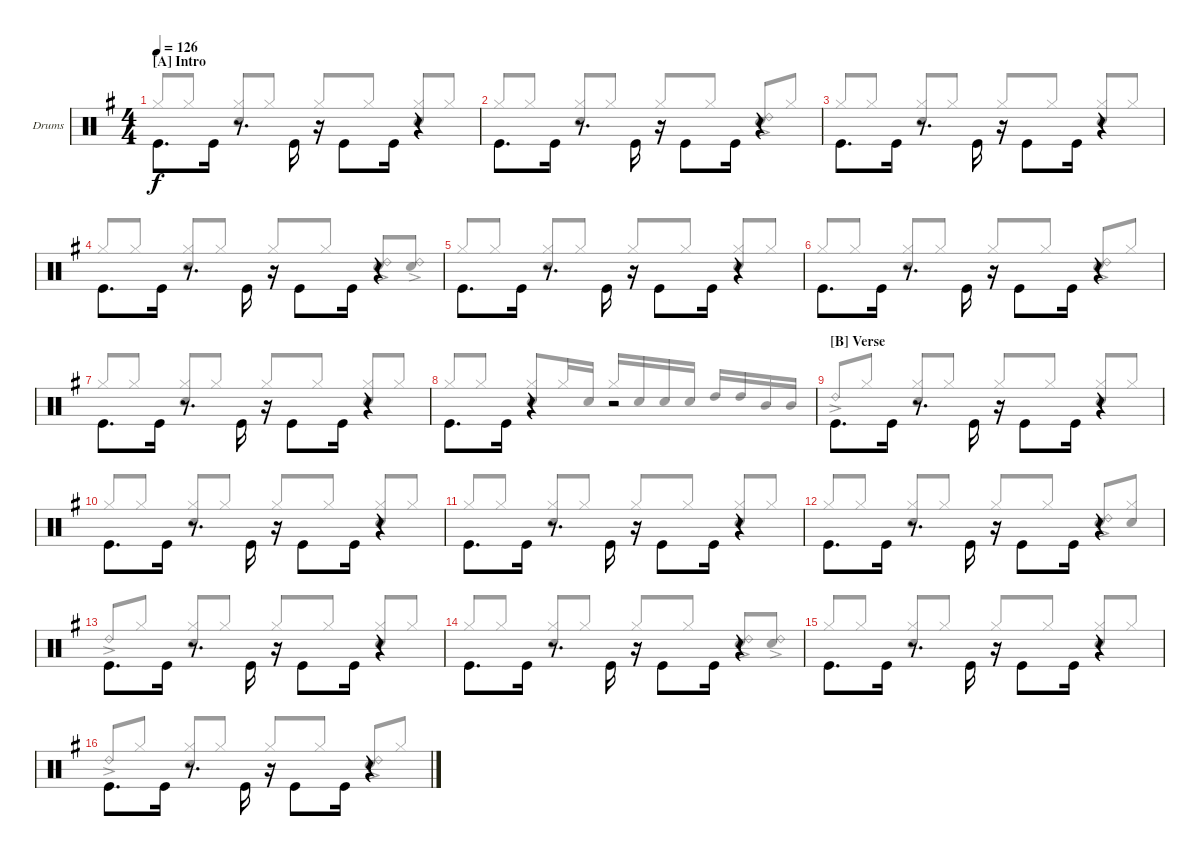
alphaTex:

\defaultSystemsLayout 4
\bracketExtendMode groupsimilarinstruments
\firstSystemTrackNameOrientation horizontal
\otherSystemsTrackNameOrientation horizontal
\track ("Drumkit" "Drums") {instrument percussion}
\staff {score}
\articulation defaults
\voice
\ts (4 4)
\section ("A" "Intro")
\tempo 126
\clef neutral
\scale
1.07314
\ks g "Kick (hit)".8{d dy f beam invert} "Kick (hit)".16
r.8{d beam invert} "Kick (hit)".16{beam invert} r.16{beam invert} "Kick (hit)".8{beam invert} "Kick (hit)".16 r.4{beam invert} |
\scale
0.92686 "Kick (hit)".8{d beam invert} "Kick (hit)".16 r.8{d beam invert} "Kick (hit)".16{beam invert} r.16{beam invert} "Kick (hit)".8{beam invert} "Kick (hit)".16 r.4{beam invert} |
\scale
1.04288 "Kick (hit)".8{d beam invert} "Kick (hit)".16 r.8{d beam invert} "Kick (hit)".16{beam invert} r.16{beam invert} "Kick (hit)".8{beam invert} "Kick (hit)".16 r.4{beam invert} |
\scale
0.957125 "Kick (hit)".8{d beam invert} "Kick (hit)".16 r.8{d beam invert} "Kick (hit)".16{beam invert} r.16{beam invert} "Kick (hit)".8{beam invert} "Kick (hit)".16 r.4{beam invert} |
\scale
1.04288 "Kick (hit)".8{d beam invert} "Kick (hit)".16 r.8{d beam invert} "Kick (hit)".16{beam invert} r.16{beam invert} "Kick (hit)".8{beam invert} "Kick (hit)".16 r.4{beam invert} |
\scale
0.957125 "Kick (hit)".8{d beam invert} "Kick (hit)".16 r.8{d beam invert} "Kick (hit)".16{beam invert} r.16{beam invert} "Kick (hit)".8{beam invert} "Kick (hit)".16 r.4{beam invert} |
\scale
1.04288 "Kick (hit)".8{d beam invert} "Kick (hit)".16 r.8{d beam invert} "Kick (hit)".16{beam invert} r.16{beam invert} "Kick (hit)".8{beam invert} "Kick (hit)".16 r.4{beam invert} |
\scale
0.957125 "Kick (hit)".8{d beam invert} "Kick (hit)".16 r.4{beam invert} r.2 |
\section ("B" "Verse")
\scale
1.04288 "Kick (hit)".8{d beam invert} "Kick (hit)".16 r.8{d beam invert} "Kick (hit)".16{beam invert} r.16{beam invert} "Kick (hit)".8{beam invert} "Kick (hit)".16 r.4{beam invert} |
\scale
0.957125 "Kick (hit)".8{d beam invert} "Kick (hit)".16 r.8{d beam invert} "Kick (hit)".16{beam invert} r.16{beam invert} "Kick (hit)".8{beam invert} "Kick (hit)".16 r.4{beam invert} |
\scale
1.04288 "Kick (hit)".8{d beam invert} "Kick (hit)".16 r.8{d beam invert} "Kick (hit)".16{beam invert} r.16{beam invert} "Kick (hit)".8{beam invert} "Kick (hit)".16 r.4{beam invert} |
\scale
0.957125 "Kick (hit)".8{d beam invert} "Kick (hit)".16 r.8{d beam invert} "Kick (hit)".16{beam invert} r.16{beam invert} "Kick (hit)".8{beam invert} "Kick (hit)".16 r.4{beam invert} |
\scale
1.04288 "Kick (hit)".8{d beam invert} "Kick (hit)".16 r.8{d beam invert} "Kick (hit)".16{beam invert} r.16{beam invert} "Kick (hit)".8{beam invert} "Kick (hit)".16 r.4{beam invert} |
\scale
0.957125 "Kick (hit)".8{d beam invert} "Kick (hit)".16 r.8{d beam invert} "Kick (hit)".16{beam invert} r.16{beam invert} "Kick (hit)".8{beam invert} "Kick (hit)".16 r.4{beam invert} |
\scale
1.04288 "Kick (hit)".8{d beam invert} "Kick (hit)".16 r.8{d beam invert} "Kick (hit)".16{beam invert} r.16{beam invert} "Kick (hit)".8{beam invert} "Kick (hit)".16 r.4{beam invert} |
\scale
0.957125 "Kick (hit)".8{d beam invert} "Kick (hit)".16 r.8{d beam invert} "Kick (hit)".16{beam invert} r.16{beam invert} "Kick (hit)".8{beam invert} "Kick (hit)".16 r.4{beam invert}
\voice
\clef neutral
\ottava regular
\simile none
\scale
1.07314
\ks g "Hi-Hat (closed)".8{dy f beam invert} "Hi-Hat (closed)".8
("Hi-Hat (closed)" "Snare (hit) 2").8{beam invert} "Hi-Hat (closed)".8 "Hi-Hat (closed)".8{beam invert} "Hi-Hat (closed)".8 ("Hi-Hat (closed)" "Snare (hit) 2").8{beam invert} "Hi-Hat (closed)".8 |
\scale
0.92686 "Hi-Hat (closed)".8{beam invert} "Hi-Hat (closed)".8 ("Hi-Hat (closed)" "Snare (hit) 2").8{beam invert} "Hi-Hat (closed)".8 "Hi-Hat (closed)".8{beam invert} "Hi-Hat (closed)".8 ("Snare (hit) 2" "Ride (bell) 2"{ac}).8{beam invert} "Hi-Hat (closed)".8 |
\scale
1.04288 "Hi-Hat (closed)".8{beam invert} "Hi-Hat (closed)".8 ("Hi-Hat (closed)" "Snare (hit) 2").8{beam invert} "Hi-Hat (closed)".8 "Hi-Hat (closed)".8{beam invert} "Hi-Hat (closed)".8 ("Hi-Hat (closed)" "Snare (hit) 2").8{beam invert} "Hi-Hat (closed)".8 |
\scale
0.957125 "Hi-Hat (closed)".8{beam invert} "Hi-Hat (closed)".8 ("Hi-Hat (closed)" "Snare (hit) 2").8{beam invert} "Hi-Hat (closed)".8 "Hi-Hat (closed)".8{beam invert} "Hi-Hat (closed)".8 ("Snare (hit) 2" "Ride (bell) 2"{ac}).8{beam invert} ("Ride (bell) 2" "Snare (hit) 2"{ac}).8 |
\scale
1.04288 "Hi-Hat (closed)".8{beam invert} "Hi-Hat (closed)".8 ("Hi-Hat (closed)" "Snare (hit) 2").8{beam invert} "Hi-Hat (closed)".8 "Hi-Hat (closed)".8{beam invert} "Hi-Hat (closed)".8 ("Hi-Hat (closed)" "Snare (hit) 2").8{beam invert} "Hi-Hat (closed)".8 |
\scale
0.957125 "Hi-Hat (closed)".8{beam invert} "Hi-Hat (closed)".8 ("Hi-Hat (closed)" "Snare (hit) 2").8{beam invert} "Hi-Hat (closed)".8 "Hi-Hat (closed)".8{beam invert} "Hi-Hat (closed)".8 ("Snare (hit) 2" "Ride (bell) 2"{ac}).8{beam invert} "Hi-Hat (closed)".8 |
\scale
1.04288 "Hi-Hat (closed)".8{beam invert} "Hi-Hat (closed)".8 ("Hi-Hat (closed)" "Snare (hit) 2").8{beam invert} "Hi-Hat (closed)".8 "Hi-Hat (closed)".8{beam invert} "Hi-Hat (closed)".8 ("Hi-Hat (closed)" "Snare (hit) 2").8{beam invert} "Hi-Hat (closed)".8 |
\scale
0.957125 "Hi-Hat (closed)".8{beam invert} "Hi-Hat (closed)".8 ("Hi-Hat (closed)" "Snare (hit) 2").8{beam invert} "Hi-Hat (closed)".16 "Snare (hit) 2".16 "Hi-Hat (closed)".16 "Snare (hit) 2".16{beam invert} "Snare (hit) 2".16 "Snare (hit) 2".16 "High Tom (hit)".16{beam invert} "High Tom (hit)".16 "Mid Tom (hit)".16 "Mid Tom (hit)".16 |
\scale
1.04288 "Ride (bell) 2"{ac}.8{beam invert} "Hi-Hat (closed)".8 ("Hi-Hat (closed)" "Snare (hit) 2").8{beam invert} "Hi-Hat (closed)".8 "Hi-Hat (closed)".8{beam invert} "Hi-Hat (closed)".8 ("Hi-Hat (closed)" "Snare (hit) 2").8{beam invert} "Hi-Hat (closed)".8 |
\scale
0.957125 "Hi-Hat (closed)".8{beam invert} "Hi-Hat (closed)".8 ("Hi-Hat (closed)" "Snare (hit) 2").8{beam invert} "Hi-Hat (closed)".8 "Hi-Hat (closed)".8{beam invert} "Hi-Hat (closed)".8 ("Hi-Hat (closed)" "Snare (hit) 2").8{beam invert} "Hi-Hat (closed)".8 |
\scale
1.04288 "Hi-Hat (closed)".8{beam invert} "Hi-Hat (closed)".8 ("Hi-Hat (closed)" "Snare (hit) 2").8{beam invert} "Hi-Hat (closed)".8 "Hi-Hat (closed)".8{beam invert} "Hi-Hat (closed)".8 ("Hi-Hat (closed)" "Snare (hit) 2").8{beam invert} "Hi-Hat (closed)".8 |
\scale
0.957125 "Hi-Hat (closed)".8{beam invert} "Hi-Hat (closed)".8 ("Hi-Hat (closed)" "Snare (hit) 2").8{beam invert} "Hi-Hat (closed)".8 "Hi-Hat (closed)".8{beam invert} "Hi-Hat (closed)".8 ("Snare (hit) 2" "Ride (bell) 2"{ac}).8{beam invert} ("Hi-Hat (closed)" "Snare (hit) 2").8 |
\scale
1.04288 "Ride (bell) 2"{ac}.8{beam invert} "Hi-Hat (closed)".8 ("Hi-Hat (closed)" "Snare (hit) 2").8{beam invert} "Hi-Hat (closed)".8 "Hi-Hat (closed)".8{beam invert} "Hi-Hat (closed)".8 ("Hi-Hat (closed)" "Snare (hit) 2").8{beam invert} "Hi-Hat (closed)".8 |
\scale
0.957125 "Hi-Hat (closed)".8{beam invert} "Hi-Hat (closed)".8 ("Hi-Hat (closed)" "Snare (hit) 2").8{beam invert} "Hi-Hat (closed)".8 "Hi-Hat (closed)".8{beam invert} "Hi-Hat (closed)".8 ("Snare (hit) 2" "Ride (bell) 2"{ac}).8{beam invert} ("Snare (hit) 2" "Ride (bell) 2"{ac}).8 |
\scale
1.04288 "Hi-Hat (closed)".8{beam invert} "Hi-Hat (closed)".8 ("Hi-Hat (closed)" "Snare (hit) 2").8{beam invert} "Hi-Hat (closed)".8 "Hi-Hat (closed)".8{beam invert} "Hi-Hat (closed)".8 ("Hi-Hat (closed)" "Snare (hit) 2").8{beam invert} "Hi-Hat (closed)".8 |
\scale
0.957125 "Ride (bell) 2"{ac}.8{beam invert} "Hi-Hat (closed)".8 ("Hi-Hat (closed)" "Snare (hit) 2").8{beam invert} "Hi-Hat (closed)".8 "Hi-Hat (closed)".8{beam invert} "Hi-Hat (closed)".8 ("Snare (hit) 2" "Ride (bell) 2"{ac}).8{beam invert} "Hi-Hat (closed)".8
